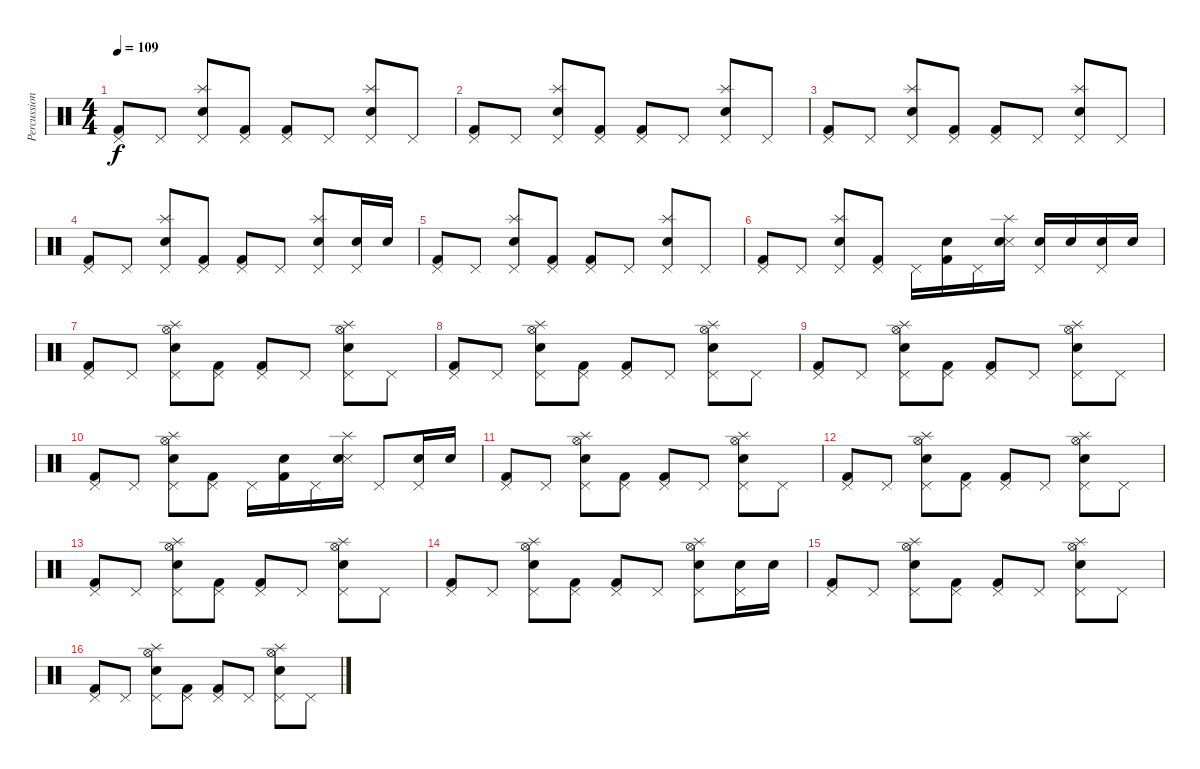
\track ("Percussion" "Percussion") {instrument percussion}
\staff {score}
\articulation defaults
\ts (4 4)
\tempo 109
\clef neutral
\ks c
("Pedal Hi-Hat (hit)" "Kick (hit) 2").8{dy f} "Pedal Hi-Hat (hit)".8 ("Pedal Hi-Hat (hit)" "Splash (hit)" "Electric Snare (hit)").8 ("Pedal Hi-Hat (hit)" "Kick (hit) 2").8 ("Pedal Hi-Hat (hit)" "Kick (hit) 2").8 "Pedal Hi-Hat (hit)".8 ("Pedal Hi-Hat (hit)" "Splash (hit)" "Electric Snare (hit)").8 "Pedal Hi-Hat (hit)".8 |
("Pedal Hi-Hat (hit)" "Kick (hit) 2").8 "Pedal Hi-Hat (hit)".8 ("Pedal Hi-Hat (hit)" "Splash (hit)" "Electric Snare (hit)").8 ("Pedal Hi-Hat (hit)" "Kick (hit) 2").8 ("Pedal Hi-Hat (hit)" "Kick (hit) 2").8 "Pedal Hi-Hat (hit)".8 ("Pedal Hi-Hat (hit)" "Splash (hit)" "Electric Snare (hit)").8 "Pedal Hi-Hat (hit)".8 |
("Pedal Hi-Hat (hit)" "Kick (hit) 2").8 "Pedal Hi-Hat (hit)".8 ("Pedal Hi-Hat (hit)" "Splash (hit)" "Electric Snare (hit)").8 ("Pedal Hi-Hat (hit)" "Kick (hit) 2").8 ("Pedal Hi-Hat (hit)" "Kick (hit) 2").8 "Pedal Hi-Hat (hit)".8 ("Pedal Hi-Hat (hit)" "Splash (hit)" "Electric Snare (hit)").8 "Pedal Hi-Hat (hit)".8 |
("Pedal Hi-Hat (hit)" "Kick (hit) 2").8 "Pedal Hi-Hat (hit)".8 ("Pedal Hi-Hat (hit)" "Splash (hit)" "Electric Snare (hit)").8 ("Pedal Hi-Hat (hit)" "Kick (hit) 2").8 ("Pedal Hi-Hat (hit)" "Kick (hit) 2").8 "Pedal Hi-Hat (hit)".8 ("Pedal Hi-Hat (hit)" "Splash (hit)" "Electric Snare (hit)").8 ("Pedal Hi-Hat (hit)" "Electric Snare (hit)").16 "Electric Snare (hit)".16 |
("Pedal Hi-Hat (hit)" "Kick (hit) 2").8 "Pedal Hi-Hat (hit)".8 ("Pedal Hi-Hat (hit)" "Splash (hit)" "Electric Snare (hit)").8 ("Pedal Hi-Hat (hit)" "Kick (hit) 2").8 ("Pedal Hi-Hat (hit)" "Kick (hit) 2").8 "Pedal Hi-Hat (hit)".8 ("Pedal Hi-Hat (hit)" "Splash (hit)" "Electric Snare (hit)").8 "Pedal Hi-Hat (hit)".8 |
("Pedal Hi-Hat (hit)" "Kick (hit) 2").8 "Pedal Hi-Hat (hit)".8 ("Pedal Hi-Hat (hit)" "Splash (hit)" "Electric Snare (hit)").8 ("Pedal Hi-Hat (hit)" "Kick (hit) 2").8 "Pedal Hi-Hat (hit)".16 ("Electric Snare (hit)" "Kick (hit) 2").16 "Pedal Hi-Hat (hit)".16 ("Splash (hit)" "Snare (side stick) 3" "Electric Snare (hit)").16 ("Pedal Hi-Hat (hit)" "Electric Snare (hit)").16 "Electric Snare (hit)".16 ("Pedal Hi-Hat (hit)" "Electric Snare (hit)").16 "Electric Snare (hit)".16 |
("Pedal Hi-Hat (hit)" "Kick (hit) 2").8 "Pedal Hi-Hat (hit)".8 ("Pedal Hi-Hat (hit)" "Splash (hit)" "Electric Snare (hit)" "Hi-Hat (open)").8 ("Pedal Hi-Hat (hit)" "Kick (hit) 2").8 ("Pedal Hi-Hat (hit)" "Kick (hit) 2").8 "Pedal Hi-Hat (hit)".8 ("Pedal Hi-Hat (hit)" "Splash (hit)" "Electric Snare (hit)" "Hi-Hat (open)").8 "Pedal Hi-Hat (hit)".8 |
("Pedal Hi-Hat (hit)" "Kick (hit) 2").8 "Pedal Hi-Hat (hit)".8 ("Pedal Hi-Hat (hit)" "Splash (hit)" "Electric Snare (hit)" "Hi-Hat (open)").8 ("Pedal Hi-Hat (hit)" "Kick (hit) 2").8 ("Pedal Hi-Hat (hit)" "Kick (hit) 2").8 "Pedal Hi-Hat (hit)".8 ("Pedal Hi-Hat (hit)" "Splash (hit)" "Electric Snare (hit)" "Hi-Hat (open)").8 "Pedal Hi-Hat (hit)".8 |
("Pedal Hi-Hat (hit)" "Kick (hit) 2").8 "Pedal Hi-Hat (hit)".8 ("Pedal Hi-Hat (hit)" "Splash (hit)" "Electric Snare (hit)" "Hi-Hat (open)").8 ("Pedal Hi-Hat (hit)" "Kick (hit) 2").8 ("Pedal Hi-Hat (hit)" "Kick (hit) 2").8 "Pedal Hi-Hat (hit)".8 ("Pedal Hi-Hat (hit)" "Splash (hit)" "Electric Snare (hit)" "Hi-Hat (open)").8 "Pedal Hi-Hat (hit)".8 |
("Pedal Hi-Hat (hit)" "Kick (hit) 2").8 "Pedal Hi-Hat (hit)".8 ("Pedal Hi-Hat (hit)" "Splash (hit)" "Electric Snare (hit)" "Hi-Hat (open)").8 ("Pedal Hi-Hat (hit)" "Kick (hit) 2").8 "Pedal Hi-Hat (hit)".16 ("Electric Snare (hit)" "Kick (hit) 2").16 "Pedal Hi-Hat (hit)".16 ("Splash (hit)" "Snare (side stick) 3" "Electric Snare (hit)").16 "Pedal Hi-Hat (hit)".8 ("Pedal Hi-Hat (hit)" "Electric Snare (hit)").16 "Electric Snare (hit)".16 |
("Pedal Hi-Hat (hit)" "Kick (hit) 2").8 "Pedal Hi-Hat (hit)".8 ("Pedal Hi-Hat (hit)" "Splash (hit)" "Electric Snare (hit)" "Hi-Hat (open)").8 ("Pedal Hi-Hat (hit)" "Kick (hit) 2").8 ("Pedal Hi-Hat (hit)" "Kick (hit) 2").8 "Pedal Hi-Hat (hit)".8 ("Pedal Hi-Hat (hit)" "Splash (hit)" "Electric Snare (hit)" "Hi-Hat (open)").8 "Pedal Hi-Hat (hit)".8 |
("Pedal Hi-Hat (hit)" "Kick (hit) 2").8 "Pedal Hi-Hat (hit)".8 ("Pedal Hi-Hat (hit)" "Splash (hit)" "Electric Snare (hit)" "Hi-Hat (open)").8 ("Pedal Hi-Hat (hit)" "Kick (hit) 2").8 ("Pedal Hi-Hat (hit)" "Kick (hit) 2").8 "Pedal Hi-Hat (hit)".8 ("Pedal Hi-Hat (hit)" "Splash (hit)" "Electric Snare (hit)" "Hi-Hat (open)").8 "Pedal Hi-Hat (hit)".8 |
("Pedal Hi-Hat (hit)" "Kick (hit) 2").8 "Pedal Hi-Hat (hit)".8 ("Pedal Hi-Hat (hit)" "Splash (hit)" "Electric Snare (hit)" "Hi-Hat (open)").8 ("Pedal Hi-Hat (hit)" "Kick (hit) 2").8 ("Pedal Hi-Hat (hit)" "Kick (hit) 2").8 "Pedal Hi-Hat (hit)".8 ("Pedal Hi-Hat (hit)" "Splash (hit)" "Electric Snare (hit)" "Hi-Hat (open)").8 "Pedal Hi-Hat (hit)".8 |
("Pedal Hi-Hat (hit)" "Kick (hit) 2").8 "Pedal Hi-Hat (hit)".8 ("Pedal Hi-Hat (hit)" "Splash (hit)" "Electric Snare (hit)" "Hi-Hat (open)").8 ("Pedal Hi-Hat (hit)" "Kick (hit) 2").8 ("Pedal Hi-Hat (hit)" "Kick (hit) 2").8 "Pedal Hi-Hat (hit)".8 ("Pedal Hi-Hat (hit)" "Splash (hit)" "Electric Snare (hit)" "Hi-Hat (open)").8 ("Pedal Hi-Hat (hit)" "Electric Snare (hit)").16 "Electric Snare (hit)".16 |
("Pedal Hi-Hat (hit)" "Kick (hit) 2").8 "Pedal Hi-Hat (hit)".8 ("Pedal Hi-Hat (hit)" "Splash (hit)" "Electric Snare (hit)" "Hi-Hat (open)").8 ("Pedal Hi-Hat (hit)" "Kick (hit) 2").8 ("Pedal Hi-Hat (hit)" "Kick (hit) 2").8 "Pedal Hi-Hat (hit)".8 ("Pedal Hi-Hat (hit)" "Splash (hit)" "Electric Snare (hit)" "Hi-Hat (open)").8 "Pedal Hi-Hat (hit)".8 |
("Pedal Hi-Hat (hit)" "Kick (hit) 2").8 "Pedal Hi-Hat (hit)".8 ("Pedal Hi-Hat (hit)" "Splash (hit)" "Electric Snare (hit)" "Hi-Hat (open)").8 ("Pedal Hi-Hat (hit)" "Kick (hit) 2").8 ("Pedal Hi-Hat (hit)" "Kick (hit) 2").8 "Pedal Hi-Hat (hit)".8 ("Pedal Hi-Hat (hit)" "Splash (hit)" "Electric Snare (hit)" "Hi-Hat (open)").8 "Pedal Hi-Hat (hit)".8
